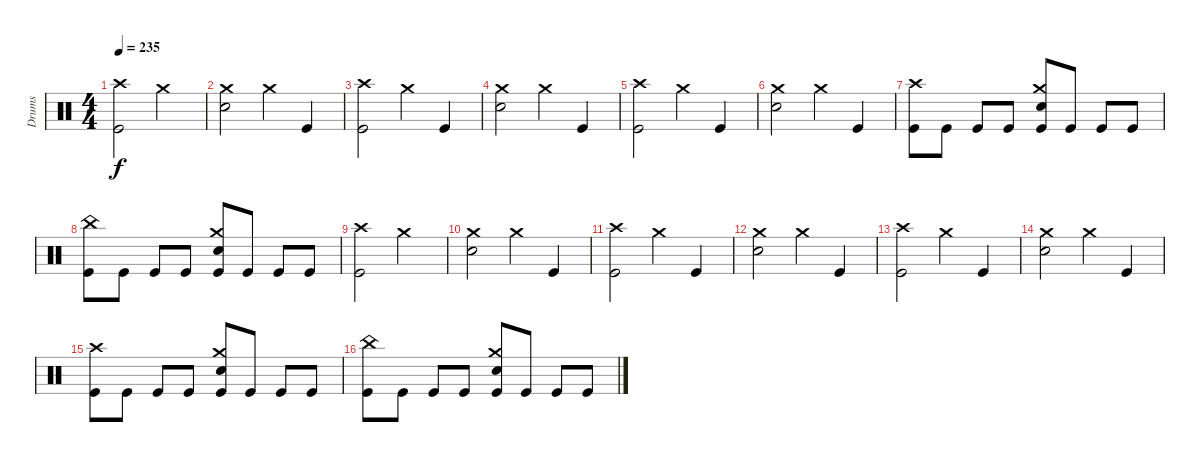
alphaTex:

\track ("Drums" "Drums") {instrument percussion}
\staff {score}
\articulation defaults
\ts (4 4)
\tempo 235
\clef neutral
\ks c
("Crash high (hit)" "Kick (hit)").2{dy f} "Crash medium (hit)".2 |
("Crash medium (hit)" "Snare (hit) 2").2 "Crash medium (hit)".4 "Kick (hit)".4 |
("Crash high (hit)" "Kick (hit)").2 "Crash medium (hit)".4 "Kick (hit)".4 |
("Crash medium (hit)" "Snare (hit) 2").2 "Crash medium (hit)".4 "Kick (hit)".4 |
("Crash high (hit)" "Kick (hit)").2 "Crash medium (hit)".4 "Kick (hit)".4 |
("Crash medium (hit)" "Snare (hit) 2").2 "Crash medium (hit)".4 "Kick (hit)".4 |
("Crash high (hit)" "Kick (hit)").8 "Kick (hit)".8 "Kick (hit)".8 "Kick (hit)".8 ("Crash medium (hit)" "Snare (hit) 2" "Kick (hit)").8 "Kick (hit)".8 "Kick (hit)".8 "Kick (hit)".8 |
("China (hit)" "Kick (hit)").8 "Kick (hit)".8 "Kick (hit)".8 "Kick (hit)".8 ("Crash medium (hit)" "Snare (hit) 2" "Kick (hit)").8 "Kick (hit)".8 "Kick (hit)".8 "Kick (hit)".8 |
("Crash high (hit)" "Kick (hit)").2 "Crash medium (hit)".2 |
("Crash medium (hit)" "Snare (hit) 2").2 "Crash medium (hit)".4 "Kick (hit)".4 |
("Crash high (hit)" "Kick (hit)").2 "Crash medium (hit)".4 "Kick (hit)".4 |
("Crash medium (hit)" "Snare (hit) 2").2 "Crash medium (hit)".4 "Kick (hit)".4 |
("Crash high (hit)" "Kick (hit)").2 "Crash medium (hit)".4 "Kick (hit)".4 |
("Crash medium (hit)" "Snare (hit) 2").2 "Crash medium (hit)".4 "Kick (hit)".4 |
("Crash high (hit)" "Kick (hit)").8 "Kick (hit)".8 "Kick (hit)".8 "Kick (hit)".8 ("Crash medium (hit)" "Snare (hit) 2" "Kick (hit)").8 "Kick (hit)".8 "Kick (hit)".8 "Kick (hit)".8 |
("China (hit)" "Kick (hit)").8 "Kick (hit)".8 "Kick (hit)".8 "Kick (hit)".8 ("Crash medium (hit)" "Snare (hit) 2" "Kick (hit)").8 "Kick (hit)".8 "Kick (hit)".8 "Kick (hit)".8
